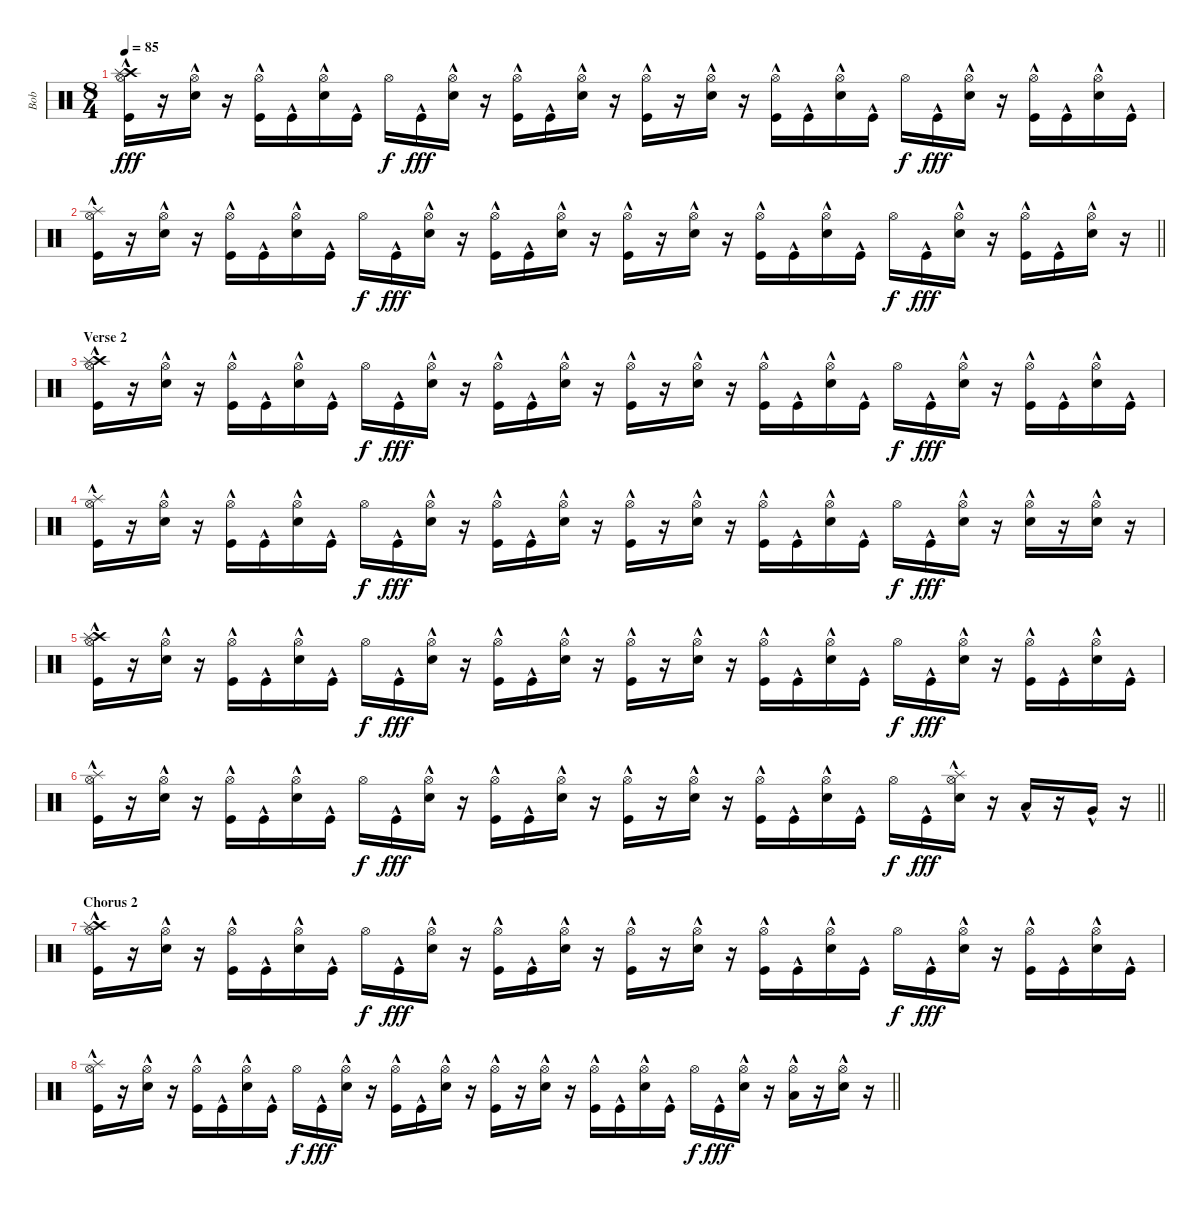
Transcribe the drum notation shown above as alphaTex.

\track ("Bob" "Bob") {instrument percussion}
\staff {score}
\articulation defaults
\ts (8 4)
\tempo 85
\clef neutral
\ks c
("Crash high (hit)" "Splash (hit)"{hac} "Hi-Hat (open)" "Kick (hit)"{hac}).16{dy fff} r.16 ("Hi-Hat (open)" "Electric Snare (hit)"{hac}).16 r.16 ("Hi-Hat (open)" "Kick (hit)"{hac}).16 "Kick (hit)"{hac}.16 ("Hi-Hat (open)" "Electric Snare (hit)"{hac}).16 "Kick (hit)"{hac}.16 "Hi-Hat (open)".16{dy f} "Kick (hit)"{hac}.16{dy fff} ("Hi-Hat (open)" "Electric Snare (hit)"{hac}).16 r.16 ("Hi-Hat (open)" "Kick (hit)"{hac}).16 "Kick (hit)"{hac}.16 ("Hi-Hat (open)" "Electric Snare (hit)"{hac}).16 r.16 ("Hi-Hat (open)" "Kick (hit)"{hac}).16 r.16 ("Hi-Hat (open)" "Electric Snare (hit)"{hac}).16 r.16 ("Hi-Hat (open)" "Kick (hit)"{hac}).16 "Kick (hit)"{hac}.16 ("Hi-Hat (open)" "Electric Snare (hit)"{hac}).16 "Kick (hit)"{hac}.16 "Hi-Hat (open)".16{dy f} "Kick (hit)"{hac}.16{dy fff} ("Hi-Hat (open)" "Electric Snare (hit)"{hac}).16 r.16 ("Hi-Hat (open)" "Kick (hit)"{hac}).16 "Kick (hit)"{hac}.16 ("Hi-Hat (open)" "Electric Snare (hit)"{hac}).16 "Kick (hit)"{hac}.16 |
\barLineRight lightlight
("Splash (hit)"{hac} "Hi-Hat (open)" "Kick (hit)"{hac}).16 r.16 ("Hi-Hat (open)" "Electric Snare (hit)"{hac}).16 r.16 ("Hi-Hat (open)" "Kick (hit)"{hac}).16 "Kick (hit)"{hac}.16 ("Hi-Hat (open)" "Electric Snare (hit)"{hac}).16 "Kick (hit)"{hac}.16 "Hi-Hat (open)".16{dy f} "Kick (hit)"{hac}.16{dy fff} ("Hi-Hat (open)" "Electric Snare (hit)"{hac}).16 r.16 ("Hi-Hat (open)" "Kick (hit)"{hac}).16 "Kick (hit)"{hac}.16 ("Hi-Hat (open)" "Electric Snare (hit)"{hac}).16 r.16 ("Hi-Hat (open)" "Kick (hit)"{hac}).16 r.16 ("Hi-Hat (open)" "Electric Snare (hit)"{hac}).16 r.16 ("Hi-Hat (open)" "Kick (hit)"{hac}).16 "Kick (hit)"{hac}.16 ("Hi-Hat (open)" "Electric Snare (hit)"{hac}).16 "Kick (hit)"{hac}.16 "Hi-Hat (open)".16{dy f} "Kick (hit)"{hac}.16{dy fff} ("Hi-Hat (open)" "Electric Snare (hit)"{hac}).16 r.16 ("Hi-Hat (open)" "Kick (hit)"{hac}).16 "Kick (hit)"{hac}.16 ("Hi-Hat (open)" "Electric Snare (hit)"{hac}).16 r.16 |
\section ("" "Verse 2")
("Crash high (hit)" "Splash (hit)"{hac} "Hi-Hat (open)" "Kick (hit)"{hac}).16 r.16 ("Hi-Hat (open)" "Electric Snare (hit)"{hac}).16 r.16 ("Hi-Hat (open)" "Kick (hit)"{hac}).16 "Kick (hit)"{hac}.16 ("Hi-Hat (open)" "Electric Snare (hit)"{hac}).16 "Kick (hit)"{hac}.16 "Hi-Hat (open)".16{dy f} "Kick (hit)"{hac}.16{dy fff} ("Hi-Hat (open)" "Electric Snare (hit)"{hac}).16 r.16 ("Hi-Hat (open)" "Kick (hit)"{hac}).16 "Kick (hit)"{hac}.16 ("Hi-Hat (open)" "Electric Snare (hit)"{hac}).16 r.16 ("Hi-Hat (open)" "Kick (hit)"{hac}).16 r.16 ("Hi-Hat (open)" "Electric Snare (hit)"{hac}).16 r.16 ("Hi-Hat (open)" "Kick (hit)"{hac}).16 "Kick (hit)"{hac}.16 ("Hi-Hat (open)" "Electric Snare (hit)"{hac}).16 "Kick (hit)"{hac}.16 "Hi-Hat (open)".16{dy f} "Kick (hit)"{hac}.16{dy fff} ("Hi-Hat (open)" "Electric Snare (hit)"{hac}).16 r.16 ("Hi-Hat (open)" "Kick (hit)"{hac}).16 "Kick (hit)"{hac}.16 ("Hi-Hat (open)" "Electric Snare (hit)"{hac}).16 "Kick (hit)"{hac}.16 |
("Splash (hit)"{hac} "Hi-Hat (open)" "Kick (hit)"{hac}).16 r.16 ("Hi-Hat (open)" "Electric Snare (hit)"{hac}).16 r.16 ("Hi-Hat (open)" "Kick (hit)"{hac}).16 "Kick (hit)"{hac}.16 ("Hi-Hat (open)" "Electric Snare (hit)"{hac}).16 "Kick (hit)"{hac}.16 "Hi-Hat (open)".16{dy f} "Kick (hit)"{hac}.16{dy fff} ("Hi-Hat (open)" "Electric Snare (hit)"{hac}).16 r.16 ("Hi-Hat (open)" "Kick (hit)"{hac}).16 "Kick (hit)"{hac}.16 ("Hi-Hat (open)" "Electric Snare (hit)"{hac}).16 r.16 ("Hi-Hat (open)" "Kick (hit)"{hac}).16 r.16 ("Hi-Hat (open)" "Electric Snare (hit)"{hac}).16 r.16 ("Hi-Hat (open)" "Kick (hit)"{hac}).16 "Kick (hit)"{hac}.16 ("Hi-Hat (open)" "Electric Snare (hit)"{hac}).16 "Kick (hit)"{hac}.16 "Hi-Hat (open)".16{dy f} "Kick (hit)"{hac}.16{dy fff} ("Hi-Hat (open)" "Electric Snare (hit)"{hac}).16 r.16 ("Hi-Hat (open)" "Electric Snare (hit)"{hac}).16 r.16 ("Hi-Hat (open)" "Electric Snare (hit)"{hac}).16 r.16 |
("Crash high (hit)" "Splash (hit)"{hac} "Hi-Hat (open)" "Kick (hit)"{hac}).16 r.16 ("Hi-Hat (open)" "Electric Snare (hit)"{hac}).16 r.16 ("Hi-Hat (open)" "Kick (hit)"{hac}).16 "Kick (hit)"{hac}.16 ("Hi-Hat (open)" "Electric Snare (hit)"{hac}).16 "Kick (hit)"{hac}.16 "Hi-Hat (open)".16{dy f} "Kick (hit)"{hac}.16{dy fff} ("Hi-Hat (open)" "Electric Snare (hit)"{hac}).16 r.16 ("Hi-Hat (open)" "Kick (hit)"{hac}).16 "Kick (hit)"{hac}.16 ("Hi-Hat (open)" "Electric Snare (hit)"{hac}).16 r.16 ("Hi-Hat (open)" "Kick (hit)"{hac}).16 r.16 ("Hi-Hat (open)" "Electric Snare (hit)"{hac}).16 r.16 ("Hi-Hat (open)" "Kick (hit)"{hac}).16 "Kick (hit)"{hac}.16 ("Hi-Hat (open)" "Electric Snare (hit)"{hac}).16 "Kick (hit)"{hac}.16 "Hi-Hat (open)".16{dy f} "Kick (hit)"{hac}.16{dy fff} ("Hi-Hat (open)" "Electric Snare (hit)"{hac}).16 r.16 ("Hi-Hat (open)" "Kick (hit)"{hac}).16 "Kick (hit)"{hac}.16 ("Hi-Hat (open)" "Electric Snare (hit)"{hac}).16 "Kick (hit)"{hac}.16 |
\barLineRight lightlight
("Splash (hit)"{hac} "Hi-Hat (open)" "Kick (hit)"{hac}).16 r.16 ("Hi-Hat (open)" "Electric Snare (hit)"{hac}).16 r.16 ("Hi-Hat (open)" "Kick (hit)"{hac}).16 "Kick (hit)"{hac}.16 ("Hi-Hat (open)" "Electric Snare (hit)"{hac}).16 "Kick (hit)"{hac}.16 "Hi-Hat (open)".16{dy f} "Kick (hit)"{hac}.16{dy fff} ("Hi-Hat (open)" "Electric Snare (hit)"{hac}).16 r.16 ("Hi-Hat (open)" "Kick (hit)"{hac}).16 "Kick (hit)"{hac}.16 ("Hi-Hat (open)" "Electric Snare (hit)"{hac}).16 r.16 ("Hi-Hat (open)" "Kick (hit)"{hac}).16 r.16 ("Hi-Hat (open)" "Electric Snare (hit)"{hac}).16 r.16 ("Hi-Hat (open)" "Kick (hit)"{hac}).16 "Kick (hit)"{hac}.16 ("Hi-Hat (open)" "Electric Snare (hit)"{hac}).16 "Kick (hit)"{hac}.16 "Hi-Hat (open)".16{dy f} "Kick (hit)"{hac}.16{dy fff} ("Splash (hit)"{hac} "Hi-Hat (open)" "Electric Snare (hit)"{hac}).16 r.16 "Low Tom (hit)"{hac}.16 r.16 "Very Low Tom (hit)"{hac}.16 r.16 |
\section ("" "Chorus 2")
("Crash high (hit)" "Splash (hit)"{hac} "Hi-Hat (open)" "Kick (hit)"{hac}).16 r.16 ("Hi-Hat (open)" "Electric Snare (hit)"{hac}).16 r.16 ("Hi-Hat (open)" "Kick (hit)"{hac}).16 "Kick (hit)"{hac}.16 ("Hi-Hat (open)" "Electric Snare (hit)"{hac}).16 "Kick (hit)"{hac}.16 "Hi-Hat (open)".16{dy f} "Kick (hit)"{hac}.16{dy fff} ("Hi-Hat (open)" "Electric Snare (hit)"{hac}).16 r.16 ("Hi-Hat (open)" "Kick (hit)"{hac}).16 "Kick (hit)"{hac}.16 ("Hi-Hat (open)" "Electric Snare (hit)"{hac}).16 r.16 ("Hi-Hat (open)" "Kick (hit)"{hac}).16 r.16 ("Hi-Hat (open)" "Electric Snare (hit)"{hac}).16 r.16 ("Hi-Hat (open)" "Kick (hit)"{hac}).16 "Kick (hit)"{hac}.16 ("Hi-Hat (open)" "Electric Snare (hit)"{hac}).16 "Kick (hit)"{hac}.16 "Hi-Hat (open)".16{dy f} "Kick (hit)"{hac}.16{dy fff} ("Hi-Hat (open)" "Electric Snare (hit)"{hac}).16 r.16 ("Hi-Hat (open)" "Kick (hit)"{hac}).16 "Kick (hit)"{hac}.16 ("Hi-Hat (open)" "Electric Snare (hit)"{hac}).16 "Kick (hit)"{hac}.16 |
\barLineRight lightlight
("Splash (hit)"{hac} "Hi-Hat (open)" "Kick (hit)"{hac}).16 r.16 ("Hi-Hat (open)" "Electric Snare (hit)"{hac}).16 r.16 ("Hi-Hat (open)" "Kick (hit)"{hac}).16 "Kick (hit)"{hac}.16 ("Hi-Hat (open)" "Electric Snare (hit)"{hac}).16 "Kick (hit)"{hac}.16 "Hi-Hat (open)".16{dy f} "Kick (hit)"{hac}.16{dy fff} ("Hi-Hat (open)" "Electric Snare (hit)"{hac}).16 r.16 ("Hi-Hat (open)" "Kick (hit)"{hac}).16 "Kick (hit)"{hac}.16 ("Hi-Hat (open)" "Electric Snare (hit)"{hac}).16 r.16 ("Hi-Hat (open)" "Kick (hit)"{hac}).16 r.16 ("Hi-Hat (open)" "Electric Snare (hit)"{hac}).16 r.16 ("Hi-Hat (open)" "Kick (hit)"{hac}).16 "Kick (hit)"{hac}.16 ("Hi-Hat (open)" "Electric Snare (hit)"{hac}).16 "Kick (hit)"{hac}.16 "Hi-Hat (open)".16{dy f} "Kick (hit)"{hac}.16{dy fff} ("Hi-Hat (open)" "Electric Snare (hit)"{hac}).16 r.16 ("Hi-Hat (open)" "Low Tom (hit)"{hac}).16 r.16 ("Hi-Hat (open)" "Electric Snare (hit)"{hac}).16 r.16
